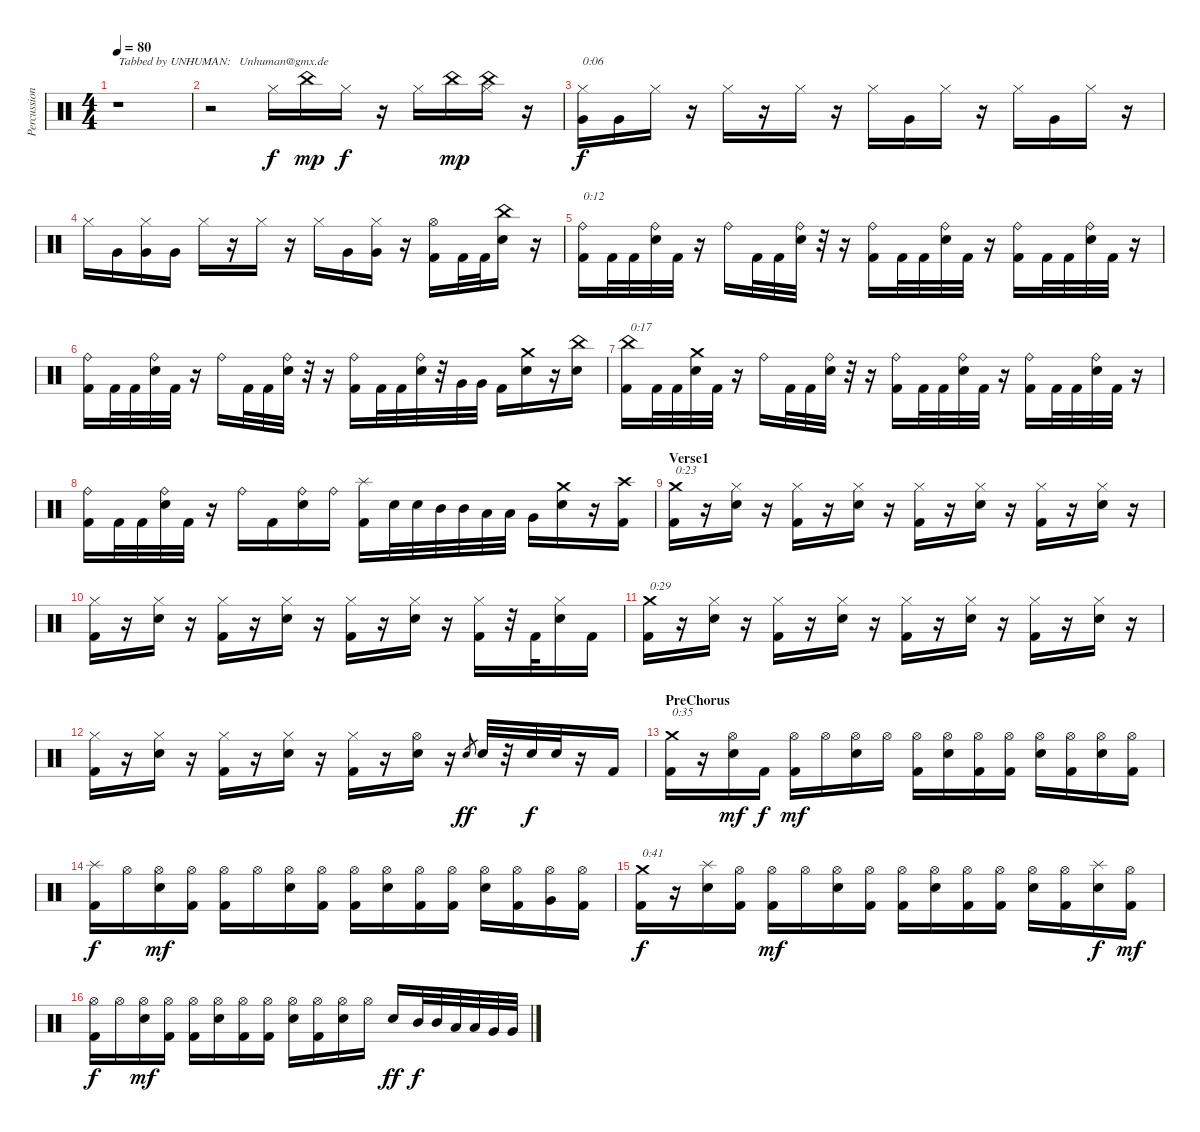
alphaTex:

\track ("Percussion" "Percussion") {instrument percussion}
\staff {score}
\articulation defaults
\ts (4 4)
\tempo 80
\clef neutral
\ks c
r.1{txt "Tabbed by UNHUMAN:   Unhuman@gmx.de" dy f} |
r.2 "Hi-Hat (closed)".16 "China (hit)".16{dy mp} "Hi-Hat (closed)".16{dy f} r.16 "Hi-Hat (closed)".16 "China (hit)".16{dy mp} ("China (hit)" "Hi-Hat (closed)").16 r.16 |
("Hi-Hat (closed)" "Very Low Tom (hit)").16{txt "0:06" dy f} "Very Low Tom (hit)".16 "Hi-Hat (closed)".16 r.16 "Hi-Hat (closed)".16 r.16 "Hi-Hat (closed)".16 r.16 "Hi-Hat (closed)".16 "Very Low Tom (hit)".16 "Hi-Hat (closed)".16 r.16 "Hi-Hat (closed)".16 "Very Low Tom (hit)".16 "Hi-Hat (closed)".16 r.16 |
"Hi-Hat (closed)".16 "Very Low Tom (hit)".16 ("Hi-Hat (closed)" "Very Low Tom (hit)").16 "Very Low Tom (hit)".16 "Hi-Hat (closed)".16 r.16 "Hi-Hat (closed)".16 r.16 "Hi-Hat (closed)".16 "Very Low Tom (hit)".16 ("Hi-Hat (closed)" "Very Low Tom (hit)").16 r.16 ("Hi-Hat (open)" "Kick (hit) 2").16 "Kick (hit) 2".32 "Kick (hit) 2".32 ("China (hit)" "Snare (hit) 2").16 r.16 |
("Ride (bell)" "Kick (hit) 2").16{txt "0:12"} "Kick (hit) 2".32 "Kick (hit) 2".32 ("Ride (bell)" "Snare (hit) 2").32 "Kick (hit) 2".32 r.16 "Ride (bell)".16 "Kick (hit) 2".32 "Kick (hit) 2".32 ("Ride (bell)" "Snare (hit) 2").32 r.32 r.16 ("Ride (bell)" "Kick (hit) 2").16 "Kick (hit) 2".32 "Kick (hit) 2".32 ("Ride (bell)" "Snare (hit) 2").32 "Kick (hit) 2".32 r.16 ("Ride (bell)" "Kick (hit) 2").16 "Kick (hit) 2".32 "Kick (hit) 2".32 ("Ride (bell)" "Snare (hit) 2").32 "Kick (hit) 2".32 r.16 |
("Ride (bell)" "Kick (hit) 2").16 "Kick (hit) 2".32 "Kick (hit) 2".32 ("Ride (bell)" "Snare (hit) 2").32 "Kick (hit) 2".32 r.16 "Ride (bell)".16 "Kick (hit) 2".32 "Kick (hit) 2".32 ("Ride (bell)" "Snare (hit) 2").32 r.32 r.16 ("Ride (bell)" "Kick (hit) 2").16 "Kick (hit) 2".32 "Kick (hit) 2".32 ("Ride (bell)" "Snare (hit) 2").32 r.32 "Very Low Tom (hit)".32 "Very Low Tom (hit)".32 "Kick (hit) 2".16 ("Crash medium (hit)" "Snare (hit) 2").16 r.16 ("China (hit)" "Snare (hit) 2").16 |
("China (hit)" "Kick (hit) 2").16{txt "0:17"} "Kick (hit) 2".32 "Kick (hit) 2".32 ("Crash medium (hit)" "Snare (hit) 2").32 "Kick (hit) 2".32 r.16 "Ride (bell)".16 "Kick (hit) 2".32 "Kick (hit) 2".32 ("Ride (bell)" "Snare (hit) 2").32 r.32 r.16 ("Ride (bell)" "Kick (hit) 2").16 "Kick (hit) 2".32 "Kick (hit) 2".32 ("Ride (bell)" "Snare (hit) 2").32 "Kick (hit) 2".32 r.16 ("Ride (bell)" "Kick (hit) 2").16 "Kick (hit) 2".32 "Kick (hit) 2".32 ("Ride (bell)" "Snare (hit) 2").32 "Kick (hit) 2".32 r.16 |
("Ride (bell)" "Kick (hit) 2").16 "Kick (hit) 2".32 "Kick (hit) 2".32 ("Ride (bell)" "Snare (hit) 2").32 "Kick (hit) 2".32 r.16 "Ride (bell)".16 "Kick (hit) 2".16 ("Ride (bell)" "Snare (hit) 2").16 "Ride (bell)".16 ("Splash (hit)" "Kick (hit) 2").16 "Snare (hit) 2".32 "Snare (hit) 2".32 "Mid Tom (hit)".32 "Mid Tom (hit)".32 "Low Tom (hit)".32 "Low Tom (hit)".32 "Very Low Tom (hit)".16 ("Crash medium (hit)" "Snare (hit) 2").16 r.16 ("Crash high (hit)" "Kick (hit) 2").16 |
\section ("" "Verse1")
("Crash medium (hit)" "Kick (hit) 2").16{txt "0:23"} r.16 ("Hi-Hat (closed)" "Snare (hit) 2").16 r.16 ("Hi-Hat (closed)" "Kick (hit) 2").16 r.16 ("Hi-Hat (closed)" "Snare (hit) 2").16 r.16 ("Hi-Hat (closed)" "Kick (hit) 2").16 r.16 ("Hi-Hat (closed)" "Snare (hit) 2").16 r.16 ("Hi-Hat (closed)" "Kick (hit) 2").16 r.16 ("Hi-Hat (closed)" "Snare (hit) 2").16 r.16 |
("Hi-Hat (closed)" "Kick (hit) 2").16 r.16 ("Hi-Hat (closed)" "Snare (hit) 2").16 r.16 ("Hi-Hat (closed)" "Kick (hit) 2").16 r.16 ("Hi-Hat (closed)" "Snare (hit) 2").16 r.16 ("Hi-Hat (closed)" "Kick (hit) 2").16 r.16 ("Hi-Hat (closed)" "Snare (hit) 2").16 r.16 ("Hi-Hat (closed)" "Kick (hit) 2").16 r.32 "Kick (hit) 2".32 ("Hi-Hat (closed)" "Snare (hit) 2").16 "Kick (hit) 2".16 |
("Crash medium (hit)" "Kick (hit) 2").16{txt "0:29"} r.16 ("Hi-Hat (closed)" "Snare (hit) 2").16 r.16 ("Hi-Hat (closed)" "Kick (hit) 2").16 r.16 ("Hi-Hat (closed)" "Snare (hit) 2").16 r.16 ("Hi-Hat (closed)" "Kick (hit) 2").16 r.16 ("Hi-Hat (closed)" "Snare (hit) 2").16 r.16 ("Hi-Hat (closed)" "Kick (hit) 2").16 r.16 ("Hi-Hat (closed)" "Snare (hit) 2").16 r.16 |
("Hi-Hat (closed)" "Kick (hit) 2").16 r.16 ("Hi-Hat (closed)" "Snare (hit) 2").16 r.16 ("Hi-Hat (closed)" "Kick (hit) 2").16 r.16 ("Hi-Hat (closed)" "Snare (hit) 2").16 r.16 ("Hi-Hat (closed)" "Kick (hit) 2").16 r.16 ("Hi-Hat (open)" "Snare (hit) 2").16 r.16 "Snare (hit) 2".8{gr dy ff} "Snare (hit) 2".32 r.32 "Snare (hit) 2".32{dy f} "Snare (hit) 2".32 r.16 "Kick (hit) 2".16 |
\section ("" "PreChorus")
("Crash medium (hit)" "Kick (hit) 2").16{txt "0:35"} r.16 ("Hi-Hat (open)" "Snare (hit) 2").16{dy mf} "Kick (hit) 2".16{dy f} ("Hi-Hat (open)" "Kick (hit) 2").16{dy mf} "Hi-Hat (open)".16 ("Hi-Hat (open)" "Snare (hit) 2").16 "Hi-Hat (open)".16 ("Hi-Hat (open)" "Kick (hit) 2").16 ("Hi-Hat (open)" "Snare (hit) 2").16 ("Hi-Hat (open)" "Kick (hit) 2").16 ("Hi-Hat (open)" "Kick (hit) 2").16 ("Hi-Hat (open)" "Snare (hit) 2").16 ("Hi-Hat (open)" "Kick (hit) 2").16 ("Hi-Hat (open)" "Snare (hit) 2").16 ("Hi-Hat (open)" "Kick (hit) 2").16 |
("Splash (hit)" "Kick (hit) 2").16{dy f} "Hi-Hat (open)".16 ("Hi-Hat (open)" "Snare (hit) 2").16{dy mf} ("Hi-Hat (open)" "Kick (hit) 2").16 ("Hi-Hat (open)" "Kick (hit) 2").16 "Hi-Hat (open)".16 ("Hi-Hat (open)" "Snare (hit) 2").16 ("Hi-Hat (open)" "Kick (hit) 2").16 ("Hi-Hat (open)" "Kick (hit) 2").16 ("Hi-Hat (open)" "Snare (hit) 2").16 ("Hi-Hat (open)" "Kick (hit) 2").16 ("Hi-Hat (open)" "Kick (hit) 2").16 ("Hi-Hat (open)" "Snare (hit) 2").16 ("Hi-Hat (open)" "Kick (hit) 2").16 ("Hi-Hat (open)" "Very Low Tom (hit)").16 ("Hi-Hat (open)" "Kick (hit) 2").16 |
("Crash medium (hit)" "Kick (hit) 2").16{txt "0:41" dy f} r.16 ("Splash (hit)" "Snare (hit) 2").16 ("Hi-Hat (open)" "Kick (hit) 2").16 ("Hi-Hat (open)" "Kick (hit) 2").16{dy mf} "Hi-Hat (open)".16 ("Hi-Hat (open)" "Snare (hit) 2").16 ("Hi-Hat (open)" "Kick (hit) 2").16 ("Hi-Hat (open)" "Kick (hit) 2").16 ("Hi-Hat (open)" "Snare (hit) 2").16 ("Hi-Hat (open)" "Kick (hit) 2").16 ("Hi-Hat (open)" "Kick (hit) 2").16 ("Hi-Hat (open)" "Snare (hit) 2").16 ("Hi-Hat (open)" "Kick (hit) 2").16 ("Splash (hit)" "Snare (hit) 2").16{dy f} ("Hi-Hat (open)" "Kick (hit) 2").16{dy mf} |
("Hi-Hat (open)" "Kick (hit) 2").16{dy f} "Hi-Hat (open)".16 ("Hi-Hat (open)" "Snare (hit) 2").16{dy mf} ("Hi-Hat (open)" "Kick (hit) 2").16 ("Hi-Hat (open)" "Kick (hit) 2").16 ("Hi-Hat (open)" "Snare (hit) 2").16 ("Hi-Hat (open)" "Kick (hit) 2").16 ("Hi-Hat (open)" "Kick (hit) 2").16 ("Hi-Hat (open)" "Snare (hit) 2").16 ("Hi-Hat (open)" "Kick (hit) 2").16 ("Hi-Hat (open)" "Snare (hit) 2").16 "Hi-Hat (open)".16 "Snare (hit) 2".16{dy ff} "Mid Tom (hit)".32{dy f} "Mid Tom (hit)".32 "Low Tom (hit)".32 "Low Tom (hit)".32 "Very Low Tom (hit)".32 "Very Low Tom (hit)".32
